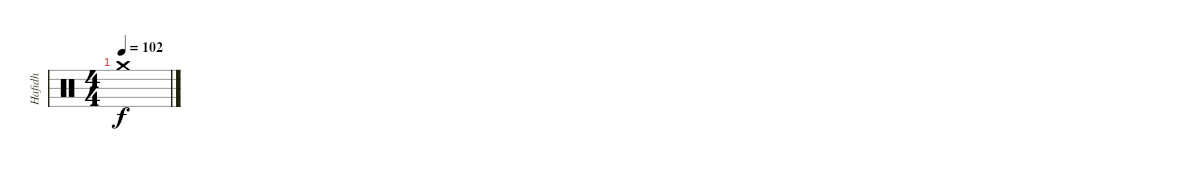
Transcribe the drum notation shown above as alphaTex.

\track ("Hafidh" "Hafidh") {instrument percussion}
\staff {score}
\articulation defaults
\ts (4 4)
\tempo 102
\clef neutral
\ks c "Crash medium (hit)".1{dy f}
